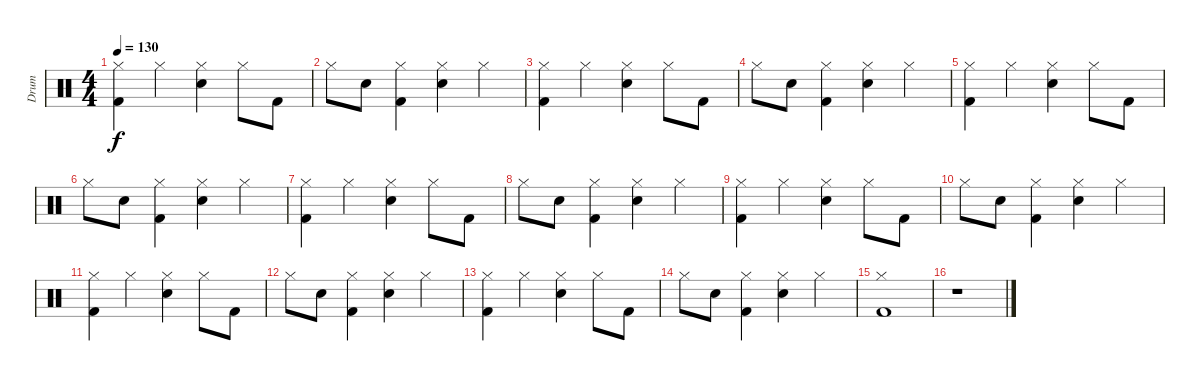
\track ("Drum" "Drum") {instrument percussion}
\staff {score}
\articulation defaults
\ts (4 4)
\tempo 130
\clef neutral
\ks c
("Hi-Hat (closed)" "Kick (hit) 2").4{dy f} "Hi-Hat (closed)".4 ("Hi-Hat (closed)" "Snare (hit) 2").4 "Hi-Hat (closed)".8 "Kick (hit) 2".8 |
"Hi-Hat (closed)".8 "Snare (hit) 2".8 ("Kick (hit) 2" "Hi-Hat (closed)").4 ("Snare (hit) 2" "Hi-Hat (closed)").4 "Hi-Hat (closed)".4 |
("Hi-Hat (closed)" "Kick (hit) 2").4 "Hi-Hat (closed)".4 ("Hi-Hat (closed)" "Snare (hit) 2").4 "Hi-Hat (closed)".8 "Kick (hit) 2".8 |
"Hi-Hat (closed)".8 "Snare (hit) 2".8 ("Kick (hit) 2" "Hi-Hat (closed)").4 ("Snare (hit) 2" "Hi-Hat (closed)").4 "Hi-Hat (closed)".4 |
("Hi-Hat (closed)" "Kick (hit) 2").4 "Hi-Hat (closed)".4 ("Hi-Hat (closed)" "Snare (hit) 2").4 "Hi-Hat (closed)".8 "Kick (hit) 2".8 |
"Hi-Hat (closed)".8 "Snare (hit) 2".8 ("Kick (hit) 2" "Hi-Hat (closed)").4 ("Snare (hit) 2" "Hi-Hat (closed)").4 "Hi-Hat (closed)".4 |
("Hi-Hat (closed)" "Kick (hit) 2").4 "Hi-Hat (closed)".4 ("Hi-Hat (closed)" "Snare (hit) 2").4 "Hi-Hat (closed)".8 "Kick (hit) 2".8 |
"Hi-Hat (closed)".8 "Snare (hit) 2".8 ("Kick (hit) 2" "Hi-Hat (closed)").4 ("Snare (hit) 2" "Hi-Hat (closed)").4 "Hi-Hat (closed)".4 |
("Hi-Hat (closed)" "Kick (hit) 2").4 "Hi-Hat (closed)".4 ("Hi-Hat (closed)" "Snare (hit) 2").4 "Hi-Hat (closed)".8 "Kick (hit) 2".8 |
"Hi-Hat (closed)".8 "Snare (hit) 2".8 ("Kick (hit) 2" "Hi-Hat (closed)").4 ("Snare (hit) 2" "Hi-Hat (closed)").4 "Hi-Hat (closed)".4 |
("Hi-Hat (closed)" "Kick (hit) 2").4 "Hi-Hat (closed)".4 ("Hi-Hat (closed)" "Snare (hit) 2").4 "Hi-Hat (closed)".8 "Kick (hit) 2".8 |
"Hi-Hat (closed)".8 "Snare (hit) 2".8 ("Kick (hit) 2" "Hi-Hat (closed)").4 ("Snare (hit) 2" "Hi-Hat (closed)").4 "Hi-Hat (closed)".4 |
("Hi-Hat (closed)" "Kick (hit) 2").4 "Hi-Hat (closed)".4 ("Hi-Hat (closed)" "Snare (hit) 2").4 "Hi-Hat (closed)".8 "Kick (hit) 2".8 |
"Hi-Hat (closed)".8 "Snare (hit) 2".8 ("Kick (hit) 2" "Hi-Hat (closed)").4 ("Snare (hit) 2" "Hi-Hat (closed)").4 "Hi-Hat (closed)".4 |
("Hi-Hat (closed)" "Kick (hit) 2").1 |
r.1
